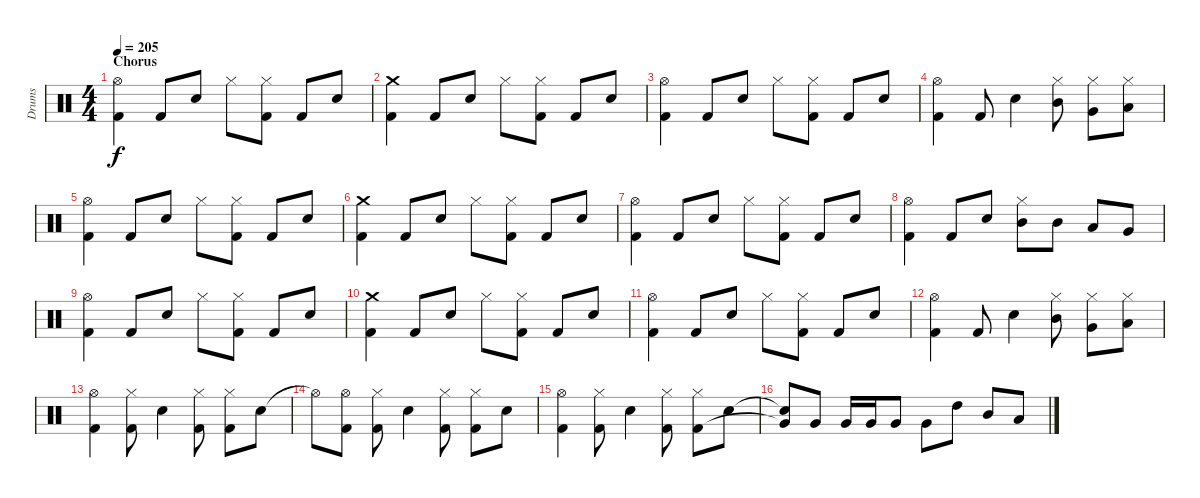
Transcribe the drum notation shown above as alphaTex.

\track ("Drums" "Drums") {instrument percussion}
\staff {score}
\articulation defaults
\ts (4 4)
\section ("" "Chorus")
\tempo 205
\clef neutral
\ks c
("Hi-Hat (open)" "Kick (hit) 2").4{dy f} "Kick (hit) 2".8 "Electric Snare (hit)".8 "Hi-Hat (closed)".8 ("Hi-Hat (closed)" "Kick (hit) 2").8 "Kick (hit) 2".8 "Electric Snare (hit)".8 |
("Crash medium (hit)" "Kick (hit) 2").4 "Kick (hit) 2".8 "Electric Snare (hit)".8 "Hi-Hat (closed)".8 ("Hi-Hat (closed)" "Kick (hit) 2").8 "Kick (hit) 2".8 "Electric Snare (hit)".8 |
("Hi-Hat (open)" "Kick (hit) 2").4 "Kick (hit) 2".8 "Electric Snare (hit)".8 "Hi-Hat (closed)".8 ("Hi-Hat (closed)" "Kick (hit) 2").8 "Kick (hit) 2".8 "Electric Snare (hit)".8 |
("Hi-Hat (open)" "Kick (hit) 2").4 "Kick (hit) 2".8 "Electric Snare (hit)".4 ("Hi-Hat (closed)" "Mid Tom (hit)").8 ("Hi-Hat (closed)" "Very Low Tom (hit)").8 ("Hi-Hat (closed)" "Low Tom (hit)").8 |
("Hi-Hat (open)" "Kick (hit) 2").4 "Kick (hit) 2".8 "Electric Snare (hit)".8 "Hi-Hat (closed)".8 ("Hi-Hat (closed)" "Kick (hit) 2").8 "Kick (hit) 2".8 "Electric Snare (hit)".8 |
("Crash medium (hit)" "Kick (hit) 2").4 "Kick (hit) 2".8 "Electric Snare (hit)".8 "Hi-Hat (closed)".8 ("Hi-Hat (closed)" "Kick (hit) 2").8 "Kick (hit) 2".8 "Electric Snare (hit)".8 |
("Hi-Hat (open)" "Kick (hit) 2").4 "Kick (hit) 2".8 "Electric Snare (hit)".8 "Hi-Hat (closed)".8 ("Hi-Hat (closed)" "Kick (hit) 2").8 "Kick (hit) 2".8 "Electric Snare (hit)".8 |
("Hi-Hat (open)" "Kick (hit) 2").4 "Kick (hit) 2".8 "Electric Snare (hit)".8 ("Hi-Hat (closed)" "Mid Tom (hit)").8 "Mid Tom (hit)".8 "Low Tom (hit)".8 "Very Low Tom (hit)".8 |
("Hi-Hat (open)" "Kick (hit) 2").4 "Kick (hit) 2".8 "Electric Snare (hit)".8 "Hi-Hat (closed)".8 ("Hi-Hat (closed)" "Kick (hit) 2").8 "Kick (hit) 2".8 "Electric Snare (hit)".8 |
("Crash medium (hit)" "Kick (hit) 2").4 "Kick (hit) 2".8 "Electric Snare (hit)".8 "Hi-Hat (closed)".8 ("Hi-Hat (closed)" "Kick (hit) 2").8 "Kick (hit) 2".8 "Electric Snare (hit)".8 |
("Hi-Hat (open)" "Kick (hit) 2").4 "Kick (hit) 2".8 "Electric Snare (hit)".8 "Hi-Hat (closed)".8 ("Hi-Hat (closed)" "Kick (hit) 2").8 "Kick (hit) 2".8 "Electric Snare (hit)".8 |
("Hi-Hat (open)" "Kick (hit) 2").4 "Kick (hit) 2".8 "Electric Snare (hit)".4 ("Hi-Hat (closed)" "Mid Tom (hit)").8 ("Hi-Hat (closed)" "Very Low Tom (hit)").8 ("Hi-Hat (closed)" "Low Tom (hit)").8 |
("Hi-Hat (open)" "Kick (hit) 2").4 ("Hi-Hat (closed)" "Kick (hit) 2").8 "Electric Snare (hit)".4 ("Hi-Hat (closed)" "Kick (hit) 2").8 ("Hi-Hat (closed)" "Kick (hit) 2").8 "Electric Snare (hit)".8 |
"Hi-Hat (open)"{t}.8 ("Hi-Hat (open)" "Kick (hit) 2").8 ("Hi-Hat (closed)" "Kick (hit) 2").8 "Electric Snare (hit)".4 ("Hi-Hat (closed)" "Kick (hit) 2").8 ("Hi-Hat (closed)" "Kick (hit) 2").8 "Electric Snare (hit)".8 |
("Hi-Hat (open)" "Kick (hit) 2").4 ("Hi-Hat (closed)" "Kick (hit) 2").8 "Electric Snare (hit)".4 ("Hi-Hat (closed)" "Kick (hit) 2").8 ("Hi-Hat (closed)" "Kick (hit) 2").8 "Electric Snare (hit)".8 |
("Snare (hit)"{t} "Very Low Tom (hit)"{t}).8 "Very Low Tom (hit)".8 "Very Low Tom (hit)".16 "Very Low Tom (hit)".16 "Very Low Tom (hit)".8 "Very Low Tom (hit)".8 "High Tom (hit)".8 "Mid Tom (hit)".8 "Low Tom (hit)".8
